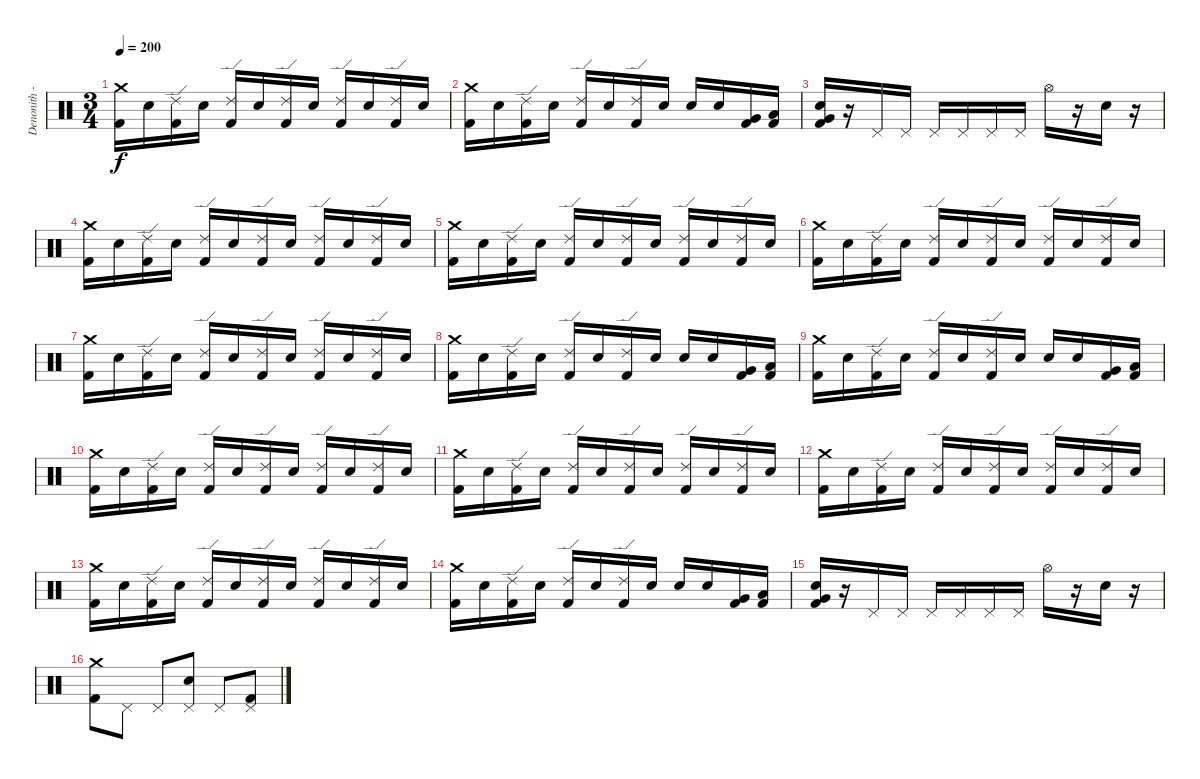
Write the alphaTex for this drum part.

\track ("Denonith - Spyros" "Denonith -") {instrument percussion}
\staff {score}
\articulation defaults
\ts (3 4)
\tempo 200
\clef neutral
\ks c
("Crash medium (hit)" "Kick (hit) 2").16{dy f} "Electric Snare (hit)".16 ("Ride (edge) 2" "Kick (hit) 2").16 "Electric Snare (hit)".16 ("Ride (edge) 2" "Kick (hit) 2").16 "Electric Snare (hit)".16 ("Ride (edge) 2" "Kick (hit) 2").16 "Electric Snare (hit)".16 ("Ride (edge) 2" "Kick (hit) 2").16 "Electric Snare (hit)".16 ("Ride (edge) 2" "Kick (hit) 2").16 "Electric Snare (hit)".16 |
("Crash medium (hit)" "Kick (hit) 2").16 "Electric Snare (hit)".16 ("Ride (edge) 2" "Kick (hit) 2").16 "Electric Snare (hit)".16 ("Ride (edge) 2" "Kick (hit) 2").16 "Electric Snare (hit)".16 ("Ride (edge) 2" "Kick (hit) 2").16 "Electric Snare (hit)".16 "Electric Snare (hit)".16 "Electric Snare (hit)".16 ("Very Low Tom (hit)" "Kick (hit) 2").16 ("Low Floor Tom (hit)" "Kick (hit) 2").16 |
("Electric Snare (hit)" "Very Low Tom (hit)" "Kick (hit) 2").16 r.16 "Pedal Hi-Hat (hit)".16 "Pedal Hi-Hat (hit)".16 "Pedal Hi-Hat (hit)".16 "Pedal Hi-Hat (hit)".16 "Pedal Hi-Hat (hit)".16 "Pedal Hi-Hat (hit)".16 "Hi-Hat (open)".16 r.16 "Electric Snare (hit)".16 r.16 |
("Crash medium (hit)" "Kick (hit) 2").16 "Electric Snare (hit)".16 ("Ride (edge) 2" "Kick (hit) 2").16 "Electric Snare (hit)".16 ("Ride (edge) 2" "Kick (hit) 2").16 "Electric Snare (hit)".16 ("Ride (edge) 2" "Kick (hit) 2").16 "Electric Snare (hit)".16 ("Ride (edge) 2" "Kick (hit) 2").16 "Electric Snare (hit)".16 ("Ride (edge) 2" "Kick (hit) 2").16 "Electric Snare (hit)".16 |
("Crash medium (hit)" "Kick (hit) 2").16 "Electric Snare (hit)".16 ("Ride (edge) 2" "Kick (hit) 2").16 "Electric Snare (hit)".16 ("Ride (edge) 2" "Kick (hit) 2").16 "Electric Snare (hit)".16 ("Ride (edge) 2" "Kick (hit) 2").16 "Electric Snare (hit)".16 ("Ride (edge) 2" "Kick (hit) 2").16 "Electric Snare (hit)".16 ("Ride (edge) 2" "Kick (hit) 2").16 "Electric Snare (hit)".16 |
("Crash medium (hit)" "Kick (hit) 2").16 "Electric Snare (hit)".16 ("Ride (edge) 2" "Kick (hit) 2").16 "Electric Snare (hit)".16 ("Ride (edge) 2" "Kick (hit) 2").16 "Electric Snare (hit)".16 ("Ride (edge) 2" "Kick (hit) 2").16 "Electric Snare (hit)".16 ("Ride (edge) 2" "Kick (hit) 2").16 "Electric Snare (hit)".16 ("Ride (edge) 2" "Kick (hit) 2").16 "Electric Snare (hit)".16 |
("Crash medium (hit)" "Kick (hit) 2").16 "Electric Snare (hit)".16 ("Ride (edge) 2" "Kick (hit) 2").16 "Electric Snare (hit)".16 ("Ride (edge) 2" "Kick (hit) 2").16 "Electric Snare (hit)".16 ("Ride (edge) 2" "Kick (hit) 2").16 "Electric Snare (hit)".16 ("Ride (edge) 2" "Kick (hit) 2").16 "Electric Snare (hit)".16 ("Ride (edge) 2" "Kick (hit) 2").16 "Electric Snare (hit)".16 |
("Crash medium (hit)" "Kick (hit) 2").16 "Electric Snare (hit)".16 ("Ride (edge) 2" "Kick (hit) 2").16 "Electric Snare (hit)".16 ("Ride (edge) 2" "Kick (hit) 2").16 "Electric Snare (hit)".16 ("Ride (edge) 2" "Kick (hit) 2").16 "Electric Snare (hit)".16 "Electric Snare (hit)".16 "Electric Snare (hit)".16 ("Very Low Tom (hit)" "Kick (hit) 2").16 ("Low Floor Tom (hit)" "Kick (hit) 2").16 |
("Crash medium (hit)" "Kick (hit) 2").16 "Electric Snare (hit)".16 ("Ride (edge) 2" "Kick (hit) 2").16 "Electric Snare (hit)".16 ("Ride (edge) 2" "Kick (hit) 2").16 "Electric Snare (hit)".16 ("Ride (edge) 2" "Kick (hit) 2").16 "Electric Snare (hit)".16 "Electric Snare (hit)".16 "Electric Snare (hit)".16 ("Very Low Tom (hit)" "Kick (hit) 2").16 ("Low Floor Tom (hit)" "Kick (hit) 2").16 |
("Crash medium (hit)" "Kick (hit) 2").16 "Electric Snare (hit)".16 ("Ride (edge) 2" "Kick (hit) 2").16 "Electric Snare (hit)".16 ("Ride (edge) 2" "Kick (hit) 2").16 "Electric Snare (hit)".16 ("Ride (edge) 2" "Kick (hit) 2").16 "Electric Snare (hit)".16 ("Ride (edge) 2" "Kick (hit) 2").16 "Electric Snare (hit)".16 ("Ride (edge) 2" "Kick (hit) 2").16 "Electric Snare (hit)".16 |
("Crash medium (hit)" "Kick (hit) 2").16 "Electric Snare (hit)".16 ("Ride (edge) 2" "Kick (hit) 2").16 "Electric Snare (hit)".16 ("Ride (edge) 2" "Kick (hit) 2").16 "Electric Snare (hit)".16 ("Ride (edge) 2" "Kick (hit) 2").16 "Electric Snare (hit)".16 ("Ride (edge) 2" "Kick (hit) 2").16 "Electric Snare (hit)".16 ("Ride (edge) 2" "Kick (hit) 2").16 "Electric Snare (hit)".16 |
("Crash medium (hit)" "Kick (hit) 2").16 "Electric Snare (hit)".16 ("Ride (edge) 2" "Kick (hit) 2").16 "Electric Snare (hit)".16 ("Ride (edge) 2" "Kick (hit) 2").16 "Electric Snare (hit)".16 ("Ride (edge) 2" "Kick (hit) 2").16 "Electric Snare (hit)".16 ("Ride (edge) 2" "Kick (hit) 2").16 "Electric Snare (hit)".16 ("Ride (edge) 2" "Kick (hit) 2").16 "Electric Snare (hit)".16 |
("Crash medium (hit)" "Kick (hit) 2").16 "Electric Snare (hit)".16 ("Ride (edge) 2" "Kick (hit) 2").16 "Electric Snare (hit)".16 ("Ride (edge) 2" "Kick (hit) 2").16 "Electric Snare (hit)".16 ("Ride (edge) 2" "Kick (hit) 2").16 "Electric Snare (hit)".16 ("Ride (edge) 2" "Kick (hit) 2").16 "Electric Snare (hit)".16 ("Ride (edge) 2" "Kick (hit) 2").16 "Electric Snare (hit)".16 |
("Crash medium (hit)" "Kick (hit) 2").16 "Electric Snare (hit)".16 ("Ride (edge) 2" "Kick (hit) 2").16 "Electric Snare (hit)".16 ("Ride (edge) 2" "Kick (hit) 2").16 "Electric Snare (hit)".16 ("Ride (edge) 2" "Kick (hit) 2").16 "Electric Snare (hit)".16 "Electric Snare (hit)".16 "Electric Snare (hit)".16 ("Very Low Tom (hit)" "Kick (hit) 2").16 ("Low Floor Tom (hit)" "Kick (hit) 2").16 |
("Electric Snare (hit)" "Very Low Tom (hit)" "Kick (hit) 2").16 r.16 "Pedal Hi-Hat (hit)".16 "Pedal Hi-Hat (hit)".16 "Pedal Hi-Hat (hit)".16 "Pedal Hi-Hat (hit)".16 "Pedal Hi-Hat (hit)".16 "Pedal Hi-Hat (hit)".16 "Hi-Hat (open)".16 r.16 "Electric Snare (hit)".16 r.16 |
("Crash medium (hit)" "Kick (hit) 2").8 "Pedal Hi-Hat (hit)".8 "Pedal Hi-Hat (hit)".8 ("Pedal Hi-Hat (hit)" "Electric Snare (hit)").8 "Pedal Hi-Hat (hit)".8 ("Pedal Hi-Hat (hit)" "Kick (hit) 2").8
